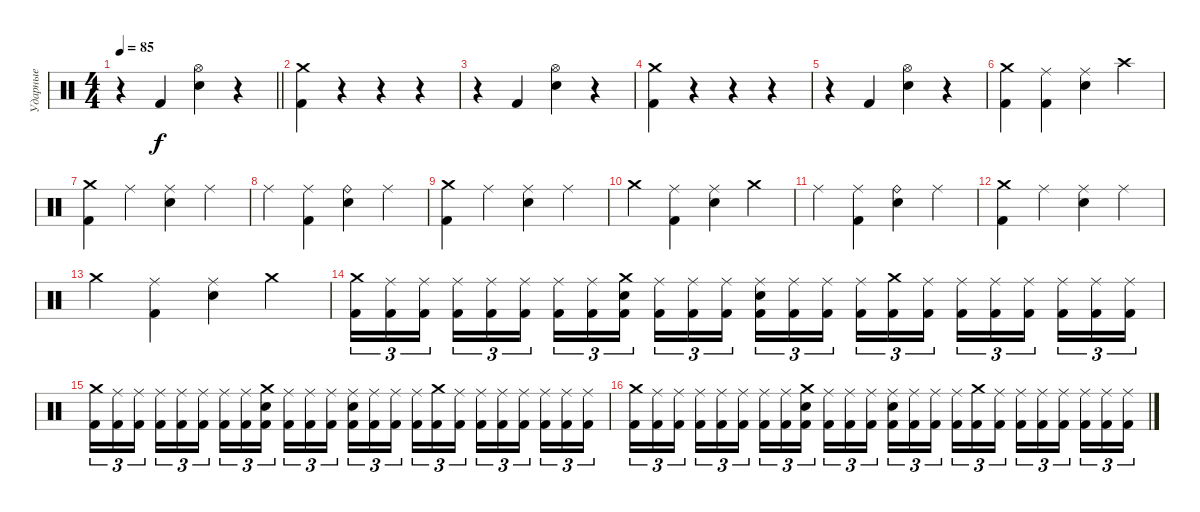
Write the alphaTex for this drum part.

\track ("Ударные" "Ударные") {mute instrument percussion}
\staff {score}
\articulation defaults
\ts (4 4)
\tempo 85
\clef neutral
\barLineRight lightlight
\ks c
r.4{dy f} "Kick (hit) 2".4 ("Hi-Hat (open)" "Electric Snare (hit)").4 r.4 |
("Crash medium (hit)" "Kick (hit) 2").4 r.4 r.4 r.4 |
r.4 "Kick (hit) 2".4 ("Hi-Hat (open)" "Electric Snare (hit)").4 r.4 |
("Crash medium (hit)" "Kick (hit) 2").4 r.4 r.4 r.4 |
r.4 "Kick (hit) 2".4 ("Hi-Hat (open)" "Electric Snare (hit)").4 r.4 |
("Crash medium (hit)" "Kick (hit) 2").4 ("Ride (middle)" "Kick (hit) 2").4 ("Ride (middle)" "Electric Snare (hit)").4 "Crash high (hit)".4 |
("Crash medium (hit)" "Kick (hit) 2").4 "Ride (middle)".4 ("Ride (middle)" "Electric Snare (hit)").4 "Ride (middle)".4 |
"Ride (middle)".4 ("Ride (middle)" "Kick (hit) 2").4 ("Ride (bell)" "Electric Snare (hit)").4 "Ride (middle)".4 |
("Crash medium (hit)" "Kick (hit) 2").4 "Ride (middle)".4 ("Ride (middle)" "Electric Snare (hit)").4 "Ride (middle)".4 |
"Crash medium (hit)".4 ("Ride (middle)" "Kick (hit) 2").4 ("Ride (middle)" "Electric Snare (hit)").4 "Crash medium (hit)".4 |
"Ride (middle)".4 ("Ride (middle)" "Kick (hit) 2").4 ("Ride (bell)" "Electric Snare (hit)").4 "Ride (middle)".4 |
("Crash medium (hit)" "Kick (hit) 2").4 "Ride (middle)".4 ("Ride (middle)" "Electric Snare (hit)").4 "Ride (middle)".4 |
"Crash medium (hit)".4 ("Ride (middle)" "Kick (hit) 2").4 ("Ride (middle)" "Electric Snare (hit)").4 "Crash medium (hit)".4 |
("Crash medium (hit)" "Kick (hit) 2").16{tu (3 2)} ("Ride (middle)" "Kick (hit) 2").16{tu (3 2)} ("Ride (middle)" "Kick (hit) 2").16{tu (3 2) beam splitsecondary} ("Ride (middle)" "Kick (hit) 2").16{tu (3 2)} ("Ride (middle)" "Kick (hit) 2").16{tu (3 2)} ("Ride (middle)" "Kick (hit) 2").16{tu (3 2)} ("Ride (middle)" "Kick (hit) 2").16{tu (3 2)} ("Ride (middle)" "Kick (hit) 2").16{tu (3 2)} ("Crash medium (hit)" "Electric Snare (hit)" "Kick (hit) 2").16{tu (3 2) beam splitsecondary} ("Ride (middle)" "Kick (hit) 2").16{tu (3 2)} ("Ride (middle)" "Kick (hit) 2").16{tu (3 2)} ("Ride (middle)" "Kick (hit) 2").16{tu (3 2)} ("Ride (middle)" "Electric Snare (hit)" "Kick (hit) 2").16{tu (3 2)} ("Ride (middle)" "Kick (hit) 2").16{tu (3 2)} ("Ride (middle)" "Kick (hit) 2").16{tu (3 2) beam splitsecondary} ("Ride (middle)" "Kick (hit) 2").16{tu (3 2)} ("Crash medium (hit)" "Kick (hit) 2").16{tu (3 2)} ("Ride (middle)" "Kick (hit) 2").16{tu (3 2)} ("Ride (middle)" "Kick (hit) 2").16{tu (3 2)} ("Ride (middle)" "Kick (hit) 2").16{tu (3 2)} ("Ride (middle)" "Kick (hit) 2").16{tu (3 2) beam splitsecondary} ("Ride (middle)" "Kick (hit) 2").16{tu (3 2)} ("Ride (middle)" "Kick (hit) 2").16{tu (3 2)} ("Ride (middle)" "Kick (hit) 2").16{tu (3 2)} |
("Crash medium (hit)" "Kick (hit) 2").16{tu (3 2)} ("Ride (middle)" "Kick (hit) 2").16{tu (3 2)} ("Ride (middle)" "Kick (hit) 2").16{tu (3 2) beam splitsecondary} ("Ride (middle)" "Kick (hit) 2").16{tu (3 2)} ("Ride (middle)" "Kick (hit) 2").16{tu (3 2)} ("Ride (middle)" "Kick (hit) 2").16{tu (3 2)} ("Ride (middle)" "Kick (hit) 2").16{tu (3 2)} ("Ride (middle)" "Kick (hit) 2").16{tu (3 2)} ("Crash medium (hit)" "Electric Snare (hit)" "Kick (hit) 2").16{tu (3 2) beam splitsecondary} ("Ride (middle)" "Kick (hit) 2").16{tu (3 2)} ("Ride (middle)" "Kick (hit) 2").16{tu (3 2)} ("Ride (middle)" "Kick (hit) 2").16{tu (3 2)} ("Ride (middle)" "Electric Snare (hit)" "Kick (hit) 2").16{tu (3 2)} ("Ride (middle)" "Kick (hit) 2").16{tu (3 2)} ("Ride (middle)" "Kick (hit) 2").16{tu (3 2) beam splitsecondary} ("Ride (middle)" "Kick (hit) 2").16{tu (3 2)} ("Crash medium (hit)" "Kick (hit) 2").16{tu (3 2)} ("Ride (middle)" "Kick (hit) 2").16{tu (3 2)} ("Ride (middle)" "Kick (hit) 2").16{tu (3 2)} ("Ride (middle)" "Kick (hit) 2").16{tu (3 2)} ("Ride (middle)" "Kick (hit) 2").16{tu (3 2) beam splitsecondary} ("Ride (middle)" "Kick (hit) 2").16{tu (3 2)} ("Ride (middle)" "Kick (hit) 2").16{tu (3 2)} ("Ride (middle)" "Kick (hit) 2").16{tu (3 2)} |
("Crash medium (hit)" "Kick (hit) 2").16{tu (3 2)} ("Ride (middle)" "Kick (hit) 2").16{tu (3 2)} ("Ride (middle)" "Kick (hit) 2").16{tu (3 2) beam splitsecondary} ("Ride (middle)" "Kick (hit) 2").16{tu (3 2)} ("Ride (middle)" "Kick (hit) 2").16{tu (3 2)} ("Ride (middle)" "Kick (hit) 2").16{tu (3 2)} ("Ride (middle)" "Kick (hit) 2").16{tu (3 2)} ("Ride (middle)" "Kick (hit) 2").16{tu (3 2)} ("Crash medium (hit)" "Electric Snare (hit)" "Kick (hit) 2").16{tu (3 2) beam splitsecondary} ("Ride (middle)" "Kick (hit) 2").16{tu (3 2)} ("Ride (middle)" "Kick (hit) 2").16{tu (3 2)} ("Ride (middle)" "Kick (hit) 2").16{tu (3 2)} ("Ride (middle)" "Electric Snare (hit)" "Kick (hit) 2").16{tu (3 2)} ("Ride (middle)" "Kick (hit) 2").16{tu (3 2)} ("Ride (middle)" "Kick (hit) 2").16{tu (3 2) beam splitsecondary} ("Ride (middle)" "Kick (hit) 2").16{tu (3 2)} ("Crash medium (hit)" "Kick (hit) 2").16{tu (3 2)} ("Ride (middle)" "Kick (hit) 2").16{tu (3 2)} ("Ride (middle)" "Kick (hit) 2").16{tu (3 2)} ("Ride (middle)" "Kick (hit) 2").16{tu (3 2)} ("Ride (middle)" "Kick (hit) 2").16{tu (3 2) beam splitsecondary} ("Ride (middle)" "Kick (hit) 2").16{tu (3 2)} ("Ride (middle)" "Kick (hit) 2").16{tu (3 2)} ("Ride (middle)" "Kick (hit) 2").16{tu (3 2)}
